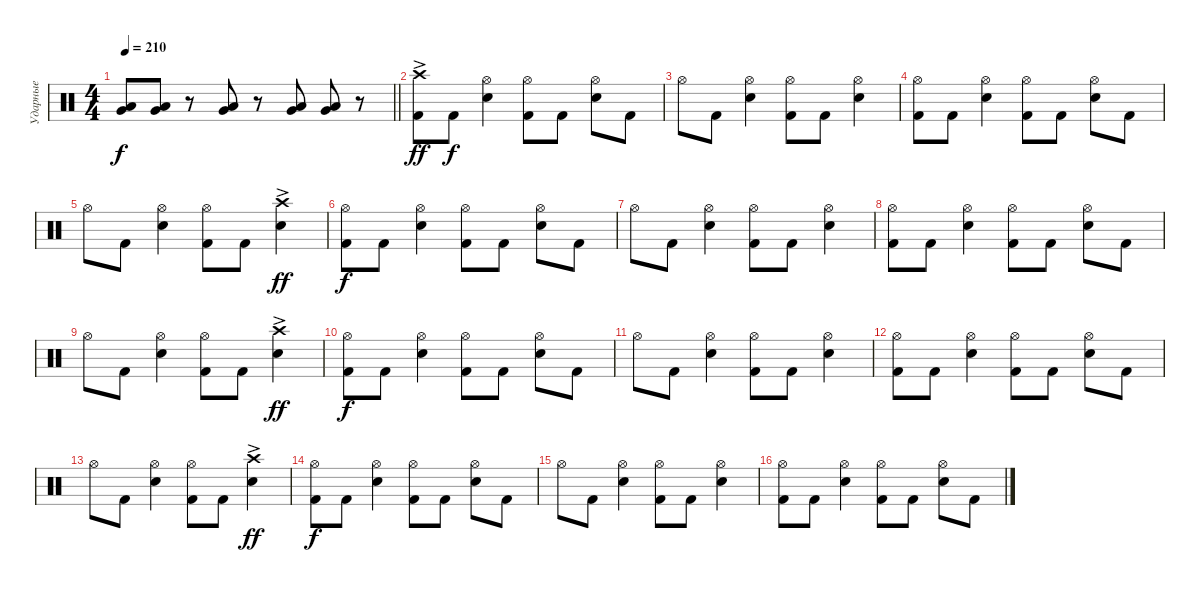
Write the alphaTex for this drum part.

\track ("Ударные" "Ударные") {instrument percussion}
\staff {score}
\articulation defaults
\ts (4 4)
\tempo 210
\clef neutral
\barLineRight lightlight
\ks c
("Low Tom (hit)" "Very Low Tom (hit)").8{dy f} ("Low Tom (hit)" "Very Low Tom (hit)").8 r.8 ("Very Low Tom (hit)" "Low Floor Tom (hit)").8 r.8 ("Very Low Tom (hit)" "Low Floor Tom (hit)").8 ("Very Low Tom (hit)" "Low Floor Tom (hit)").8 r.8 |
\section ("" "")
("Crash high (hit)"{ac} "Kick (hit) 2").8{dy ff} "Kick (hit) 2".8{dy f} ("Hi-Hat (open)" "Snare (hit) 2").4 ("Hi-Hat (open)" "Kick (hit) 2").8 "Kick (hit) 2".8 ("Hi-Hat (open)" "Snare (hit) 2").8 "Kick (hit) 2".8 |
"Hi-Hat (open)".8 "Kick (hit) 2".8 ("Hi-Hat (open)" "Snare (hit) 2").4 ("Hi-Hat (open)" "Kick (hit) 2").8 "Kick (hit) 2".8 ("Hi-Hat (open)" "Snare (hit) 2").4 |
("Hi-Hat (open)" "Kick (hit) 2").8 "Kick (hit) 2".8 ("Hi-Hat (open)" "Snare (hit) 2").4 ("Hi-Hat (open)" "Kick (hit) 2").8 "Kick (hit) 2".8 ("Hi-Hat (open)" "Snare (hit) 2").8 "Kick (hit) 2".8 |
"Hi-Hat (open)".8 "Kick (hit) 2".8 ("Hi-Hat (open)" "Snare (hit) 2").4 ("Hi-Hat (open)" "Kick (hit) 2").8 "Kick (hit) 2".8 ("Crash high (hit)"{ac} "Snare (hit) 2").4{dy ff} |
("Hi-Hat (open)" "Kick (hit) 2").8{dy f} "Kick (hit) 2".8 ("Hi-Hat (open)" "Snare (hit) 2").4 ("Hi-Hat (open)" "Kick (hit) 2").8 "Kick (hit) 2".8 ("Hi-Hat (open)" "Snare (hit) 2").8 "Kick (hit) 2".8 |
"Hi-Hat (open)".8 "Kick (hit) 2".8 ("Hi-Hat (open)" "Snare (hit) 2").4 ("Hi-Hat (open)" "Kick (hit) 2").8 "Kick (hit) 2".8 ("Hi-Hat (open)" "Snare (hit) 2").4 |
("Hi-Hat (open)" "Kick (hit) 2").8 "Kick (hit) 2".8 ("Hi-Hat (open)" "Snare (hit) 2").4 ("Hi-Hat (open)" "Kick (hit) 2").8 "Kick (hit) 2".8 ("Hi-Hat (open)" "Snare (hit) 2").8 "Kick (hit) 2".8 |
"Hi-Hat (open)".8 "Kick (hit) 2".8 ("Hi-Hat (open)" "Snare (hit) 2").4 ("Hi-Hat (open)" "Kick (hit) 2").8 "Kick (hit) 2".8 ("Crash high (hit)"{ac} "Snare (hit) 2").4{dy ff} |
("Hi-Hat (open)" "Kick (hit) 2").8{dy f} "Kick (hit) 2".8 ("Hi-Hat (open)" "Snare (hit) 2").4 ("Hi-Hat (open)" "Kick (hit) 2").8 "Kick (hit) 2".8 ("Hi-Hat (open)" "Snare (hit) 2").8 "Kick (hit) 2".8 |
"Hi-Hat (open)".8 "Kick (hit) 2".8 ("Hi-Hat (open)" "Snare (hit) 2").4 ("Hi-Hat (open)" "Kick (hit) 2").8 "Kick (hit) 2".8 ("Hi-Hat (open)" "Snare (hit) 2").4 |
("Hi-Hat (open)" "Kick (hit) 2").8 "Kick (hit) 2".8 ("Hi-Hat (open)" "Snare (hit) 2").4 ("Hi-Hat (open)" "Kick (hit) 2").8 "Kick (hit) 2".8 ("Hi-Hat (open)" "Snare (hit) 2").8 "Kick (hit) 2".8 |
"Hi-Hat (open)".8 "Kick (hit) 2".8 ("Hi-Hat (open)" "Snare (hit) 2").4 ("Hi-Hat (open)" "Kick (hit) 2").8 "Kick (hit) 2".8 ("Crash high (hit)"{ac} "Snare (hit) 2").4{dy ff} |
("Hi-Hat (open)" "Kick (hit) 2").8{dy f} "Kick (hit) 2".8 ("Hi-Hat (open)" "Snare (hit) 2").4 ("Hi-Hat (open)" "Kick (hit) 2").8 "Kick (hit) 2".8 ("Hi-Hat (open)" "Snare (hit) 2").8 "Kick (hit) 2".8 |
"Hi-Hat (open)".8 "Kick (hit) 2".8 ("Hi-Hat (open)" "Snare (hit) 2").4 ("Hi-Hat (open)" "Kick (hit) 2").8 "Kick (hit) 2".8 ("Hi-Hat (open)" "Snare (hit) 2").4 |
("Hi-Hat (open)" "Kick (hit) 2").8 "Kick (hit) 2".8 ("Hi-Hat (open)" "Snare (hit) 2").4 ("Hi-Hat (open)" "Kick (hit) 2").8 "Kick (hit) 2".8 ("Hi-Hat (open)" "Snare (hit) 2").8 "Kick (hit) 2".8
